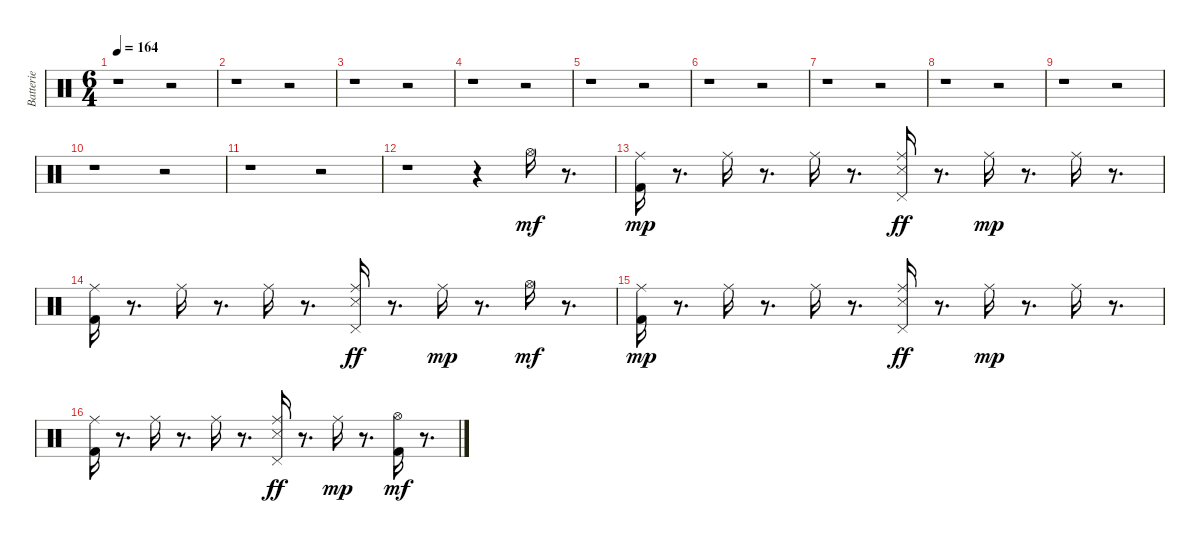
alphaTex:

\track ("Batterie" "Batterie") {instrument percussion}
\staff {score}
\articulation defaults
\ts (6 4)
\tempo 164
\clef neutral
\ks c
r.1{dy f} r.2 |
r.1 r.2 |
r.1 r.2 |
r.1 r.2 |
r.1 r.2 |
r.1 r.2 |
r.1 r.2 |
r.1 r.2 |
r.1 r.2 |
r.1 r.2 |
r.1 r.2 |
r.1 r.4 "Hi-Hat (open)".16{dy mf} r.8{d} |
("Kick (hit) 2" "Ride (middle)").16{dy mp} r.8{d} "Ride (middle)".16 r.8{d} "Ride (middle)".16 r.8{d} ("Snare (side stick) 3" "Ride (middle)" "Pedal Hi-Hat (hit)").16{dy ff} r.8{d} "Ride (middle)".16{dy mp} r.8{d} "Ride (middle)".16 r.8{d} |
("Kick (hit) 2" "Ride (middle)").16 r.8{d} "Ride (middle)".16 r.8{d} "Ride (middle)".16 r.8{d} ("Snare (side stick) 3" "Ride (middle)" "Pedal Hi-Hat (hit)").16{dy ff} r.8{d} "Ride (middle)".16{dy mp} r.8{d} "Hi-Hat (open)".16{dy mf} r.8{d} |
("Kick (hit) 2" "Ride (middle)").16{dy mp} r.8{d} "Ride (middle)".16 r.8{d} "Ride (middle)".16 r.8{d} ("Snare (side stick) 3" "Ride (middle)" "Pedal Hi-Hat (hit)").16{dy ff} r.8{d} "Ride (middle)".16{dy mp} r.8{d} "Ride (middle)".16 r.8{d} |
("Kick (hit) 2" "Ride (middle)").16 r.8{d} "Ride (middle)".16 r.8{d} "Ride (middle)".16 r.8{d} ("Snare (side stick) 3" "Ride (middle)" "Pedal Hi-Hat (hit)").16{dy ff} r.8{d} "Ride (middle)".16{dy mp} r.8{d} ("Kick (hit) 2" "Hi-Hat (open)").16{dy mf} r.8{d}
